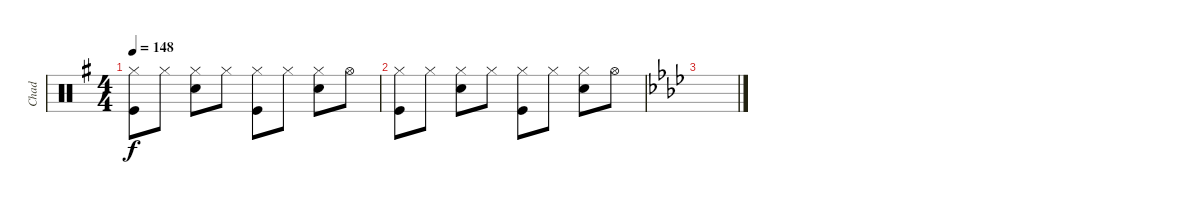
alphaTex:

\track ("Chad" "Chad") {instrument percussion}
\staff {score}
\articulation defaults
\ts (4 4)
\tempo 148
\clef neutral
\ks g
("Hi-Hat (closed)" "Kick (hit)").8{dy f} "Hi-Hat (closed)".8 ("Hi-Hat (closed)" "Snare (hit) 2").8 "Hi-Hat (closed)".8 ("Hi-Hat (closed)" "Kick (hit)").8 "Hi-Hat (closed)".8 ("Hi-Hat (closed)" "Snare (hit) 2").8 "Hi-Hat (open)".8 |
("Hi-Hat (closed)" "Kick (hit)").8 "Hi-Hat (closed)".8 ("Hi-Hat (closed)" "Snare (hit) 2").8 "Hi-Hat (closed)".8 ("Hi-Hat (closed)" "Kick (hit)").8 "Hi-Hat (closed)".8 ("Hi-Hat (closed)" "Snare (hit) 2").8 "Hi-Hat (open)".8 |
\ks ab
